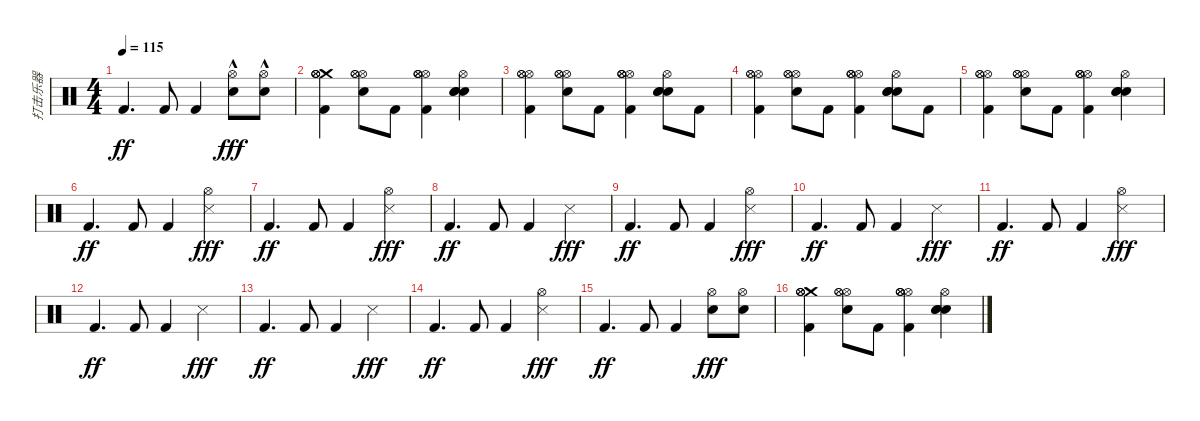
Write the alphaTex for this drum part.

\track ("打击乐器" "打击乐器") {instrument percussion}
\staff {score}
\articulation defaults
\ts (4 4)
\tempo 115
\clef neutral
\ks c "Kick (hit) 2".4{d dy ff} "Kick (hit) 2".8 "Kick (hit) 2".4
("Hi-Hat (open)" "Electric Snare (hit)"{hac}).8{dy fff} ("Hi-Hat (open)" "Electric Snare (hit)"{hac}).8 |
("Crash medium (hit)" "Hi-Hat (open)" "Hi-Hat (open)" "Hi-Hat (open)" "Kick (hit) 2").4 ("Hi-Hat (open)" "Hi-Hat (open)" "Hi-Hat (open)" "Electric Snare (hit)").8 "Kick (hit) 2".8 ("Hi-Hat (open)" "Hi-Hat (open)" "Hi-Hat (open)" "Hi-Hat (open)" "Kick (hit) 2").4 ("Electric Snare (hit)" "Electric Snare (hit)" "Electric Snare (hit)" "Hi-Hat (open)").4 |
("Hi-Hat (open)" "Hi-Hat (open)" "Hi-Hat (open)" "Kick (hit) 2").4 ("Hi-Hat (open)" "Hi-Hat (open)" "Hi-Hat (open)" "Electric Snare (hit)").8 "Kick (hit) 2".8 ("Hi-Hat (open)" "Hi-Hat (open)" "Hi-Hat (open)" "Hi-Hat (open)" "Kick (hit) 2").4 ("Electric Snare (hit)" "Electric Snare (hit)" "Electric Snare (hit)" "Hi-Hat (open)").8 "Kick (hit) 2".8 |
("Hi-Hat (open)" "Hi-Hat (open)" "Hi-Hat (open)" "Kick (hit) 2").4 ("Hi-Hat (open)" "Hi-Hat (open)" "Hi-Hat (open)" "Electric Snare (hit)").8 "Kick (hit) 2".8 ("Hi-Hat (open)" "Hi-Hat (open)" "Hi-Hat (open)" "Hi-Hat (open)" "Kick (hit) 2").4 ("Electric Snare (hit)" "Electric Snare (hit)" "Electric Snare (hit)" "Hi-Hat (open)").8 "Kick (hit) 2".8 |
("Hi-Hat (open)" "Hi-Hat (open)" "Hi-Hat (open)" "Kick (hit) 2").4 ("Hi-Hat (open)" "Hi-Hat (open)" "Hi-Hat (open)" "Electric Snare (hit)").8 "Kick (hit) 2".8 ("Hi-Hat (open)" "Hi-Hat (open)" "Hi-Hat (open)" "Hi-Hat (open)" "Kick (hit) 2").4 ("Electric Snare (hit)" "Electric Snare (hit)" "Electric Snare (hit)" "Hi-Hat (open)").4 |
"Kick (hit) 2".4{d dy ff} "Kick (hit) 2".8 "Kick (hit) 2".4 ("Snare (side stick) 3" "Hi-Hat (open)").4{dy fff} |
"Kick (hit) 2".4{d dy ff} "Kick (hit) 2".8 "Kick (hit) 2".4 ("Snare (side stick) 3" "Hi-Hat (open)").4{dy fff} |
"Kick (hit) 2".4{d dy ff} "Kick (hit) 2".8 "Kick (hit) 2".4 "Snare (side stick) 3".4{dy fff} |
"Kick (hit) 2".4{d dy ff} "Kick (hit) 2".8 "Kick (hit) 2".4 ("Snare (side stick) 3" "Hi-Hat (open)").4{dy fff} |
"Kick (hit) 2".4{d dy ff} "Kick (hit) 2".8 "Kick (hit) 2".4 "Snare (side stick) 3".4{dy fff} |
"Kick (hit) 2".4{d dy ff} "Kick (hit) 2".8 "Kick (hit) 2".4 ("Snare (side stick) 3" "Hi-Hat (open)").4{dy fff} |
"Kick (hit) 2".4{d dy ff} "Kick (hit) 2".8 "Kick (hit) 2".4 "Snare (side stick) 3".4{dy fff} |
"Kick (hit) 2".4{d dy ff} "Kick (hit) 2".8 "Kick (hit) 2".4 "Snare (side stick) 3".4{dy fff} |
"Kick (hit) 2".4{d dy ff} "Kick (hit) 2".8 "Kick (hit) 2".4 ("Snare (side stick) 3" "Hi-Hat (open)").4{dy fff} |
"Kick (hit) 2".4{d dy ff} "Kick (hit) 2".8 "Kick (hit) 2".4 ("Hi-Hat (open)" "Electric Snare (hit)").8{dy fff} ("Hi-Hat (open)" "Electric Snare (hit)").8 |
("Crash medium (hit)" "Hi-Hat (open)" "Hi-Hat (open)" "Hi-Hat (open)" "Kick (hit) 2").4 ("Hi-Hat (open)" "Hi-Hat (open)" "Hi-Hat (open)" "Electric Snare (hit)").8 "Kick (hit) 2".8 ("Hi-Hat (open)" "Hi-Hat (open)" "Hi-Hat (open)" "Hi-Hat (open)" "Kick (hit) 2").4 ("Electric Snare (hit)" "Electric Snare (hit)" "Electric Snare (hit)" "Hi-Hat (open)").4
